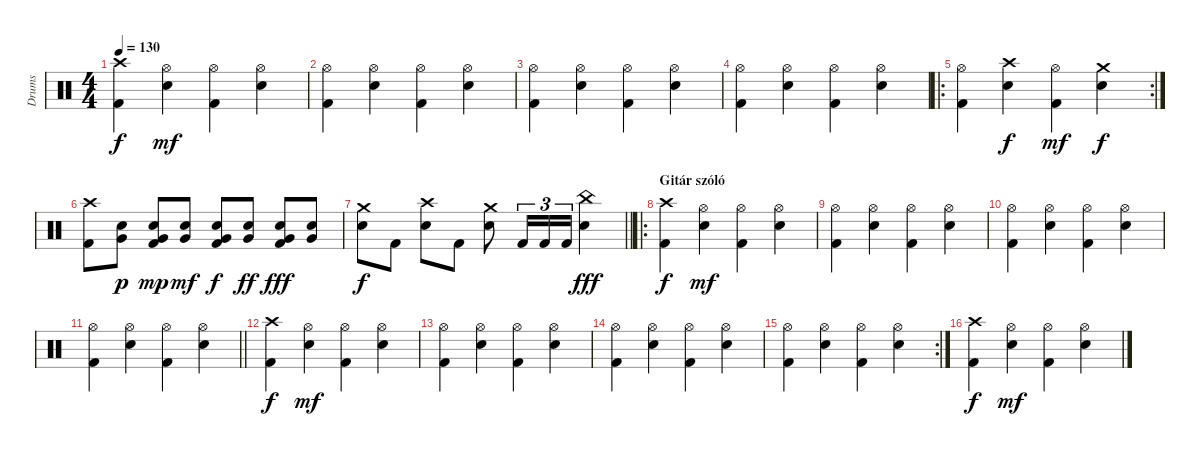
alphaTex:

\track ("Drums" "Drums") {instrument percussion}
\staff {score}
\articulation defaults
\ts (4 4)
\tempo 130
\clef neutral
\ks c
("Crash high (hit)" "Kick (hit) 2").4{dy f} ("Hi-Hat (open)" "Electric Snare (hit)").4{dy mf} ("Hi-Hat (open)" "Kick (hit) 2").4 ("Hi-Hat (open)" "Electric Snare (hit)").4 |
("Hi-Hat (open)" "Kick (hit) 2").4 ("Hi-Hat (open)" "Electric Snare (hit)").4 ("Hi-Hat (open)" "Kick (hit) 2").4 ("Hi-Hat (open)" "Electric Snare (hit)").4 |
("Hi-Hat (open)" "Kick (hit) 2").4 ("Hi-Hat (open)" "Electric Snare (hit)").4 ("Hi-Hat (open)" "Kick (hit) 2").4 ("Hi-Hat (open)" "Electric Snare (hit)").4 |
("Hi-Hat (open)" "Kick (hit) 2").4 ("Hi-Hat (open)" "Electric Snare (hit)").4 ("Hi-Hat (open)" "Kick (hit) 2").4 ("Hi-Hat (open)" "Electric Snare (hit)").4 |
\ro
\rc 2
("Hi-Hat (open)" "Kick (hit) 2").4 ("Crash high (hit)" "Electric Snare (hit)").4{dy f} ("Hi-Hat (open)" "Kick (hit) 2").4{dy mf} ("Crash medium (hit)" "Electric Snare (hit)").4{dy f} |
("Crash high (hit)" "Kick (hit) 2").8 ("Electric Snare (hit)" "Very Low Tom (hit)").8{dy p} ("Electric Snare (hit)" "Very Low Tom (hit)" "Kick (hit) 2").8{dy mp} ("Electric Snare (hit)" "Very Low Tom (hit)").8{dy mf} ("Electric Snare (hit)" "Very Low Tom (hit)" "Kick (hit) 2").8{dy f} ("Electric Snare (hit)" "Very Low Tom (hit)").8{dy ff} ("Electric Snare (hit)" "Very Low Tom (hit)" "Kick (hit) 2").8{dy fff} ("Electric Snare (hit)" "Very Low Tom (hit)").8 |
\barLineRight lightlight
("Crash medium (hit)" "Electric Snare (hit)").8{dy f} "Kick (hit) 2".8 ("Crash high (hit)" "Electric Snare (hit)").8 "Kick (hit) 2".8 ("Crash medium (hit)" "Electric Snare (hit)").8 "Kick (hit) 2".16{tu (3 2)} "Kick (hit) 2".16{tu (3 2)} "Kick (hit) 2".16{tu (3 2)} ("China (hit)" "Electric Snare (hit)").4{dy fff} |
\ro
\section ("" "Gitár szóló")
("Crash high (hit)" "Kick (hit) 2").4{dy f} ("Hi-Hat (open)" "Electric Snare (hit)").4{dy mf} ("Hi-Hat (open)" "Kick (hit) 2").4 ("Hi-Hat (open)" "Electric Snare (hit)").4 |
("Hi-Hat (open)" "Kick (hit) 2").4 ("Hi-Hat (open)" "Electric Snare (hit)").4 ("Hi-Hat (open)" "Kick (hit) 2").4 ("Hi-Hat (open)" "Electric Snare (hit)").4 |
("Hi-Hat (open)" "Kick (hit) 2").4 ("Hi-Hat (open)" "Electric Snare (hit)").4 ("Hi-Hat (open)" "Kick (hit) 2").4 ("Hi-Hat (open)" "Electric Snare (hit)").4 |
\barLineRight lightlight
("Hi-Hat (open)" "Kick (hit) 2").4 ("Hi-Hat (open)" "Electric Snare (hit)").4 ("Hi-Hat (open)" "Kick (hit) 2").4 ("Hi-Hat (open)" "Electric Snare (hit)").4 |
("Crash high (hit)" "Kick (hit) 2").4{dy f} ("Hi-Hat (open)" "Electric Snare (hit)").4{dy mf} ("Hi-Hat (open)" "Kick (hit) 2").4 ("Hi-Hat (open)" "Electric Snare (hit)").4 |
("Hi-Hat (open)" "Kick (hit) 2").4 ("Hi-Hat (open)" "Electric Snare (hit)").4 ("Hi-Hat (open)" "Kick (hit) 2").4 ("Hi-Hat (open)" "Electric Snare (hit)").4 |
("Hi-Hat (open)" "Kick (hit) 2").4 ("Hi-Hat (open)" "Electric Snare (hit)").4 ("Hi-Hat (open)" "Kick (hit) 2").4 ("Hi-Hat (open)" "Electric Snare (hit)").4 |
\rc 2
("Hi-Hat (open)" "Kick (hit) 2").4 ("Hi-Hat (open)" "Electric Snare (hit)").4 ("Hi-Hat (open)" "Kick (hit) 2").4 ("Hi-Hat (open)" "Electric Snare (hit)").4 |
("Crash high (hit)" "Kick (hit) 2").4{dy f} ("Hi-Hat (open)" "Electric Snare (hit)").4{dy mf} ("Hi-Hat (open)" "Kick (hit) 2").4 ("Hi-Hat (open)" "Electric Snare (hit)").4
